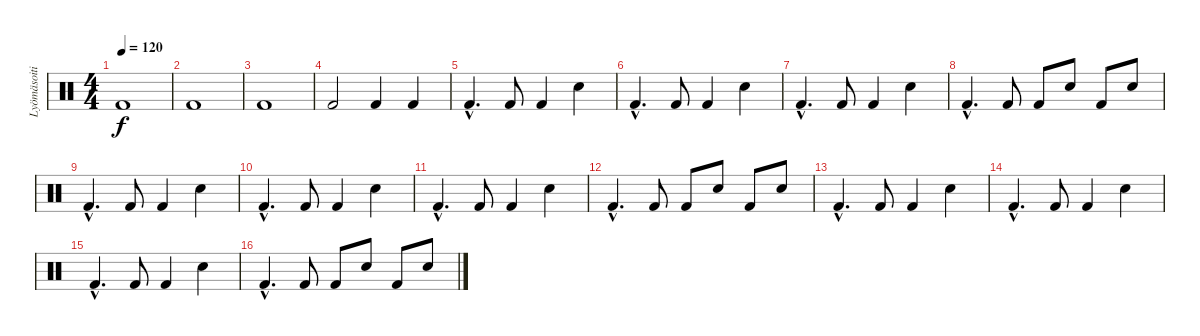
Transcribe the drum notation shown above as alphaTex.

\track ("Lyömäsoitin" "Lyömäsoiti") {instrument percussion}
\staff {score}
\articulation defaults
\ts (4 4)
\tempo 120
\clef neutral
\ks c "Kick (hit) 2".1{dy f}
|
"Kick (hit) 2".1 |
"Kick (hit) 2".1 |
"Kick (hit) 2".2 "Kick (hit) 2".4 "Kick (hit) 2".4 |
"Kick (hit) 2"{hac}.4{d} "Kick (hit) 2".8 "Kick (hit) 2".4 "Snare (hit) 2".4 |
"Kick (hit) 2"{hac}.4{d} "Kick (hit) 2".8 "Kick (hit) 2".4 "Snare (hit) 2".4 |
"Kick (hit) 2"{hac}.4{d} "Kick (hit) 2".8 "Kick (hit) 2".4 "Snare (hit) 2".4 |
"Kick (hit) 2"{hac}.4{d} "Kick (hit) 2".8 "Kick (hit) 2".8 "Snare (hit) 2".8 "Kick (hit) 2".8 "Snare (hit) 2".8 |
"Kick (hit) 2"{hac}.4{d} "Kick (hit) 2".8 "Kick (hit) 2".4 "Snare (hit) 2".4 |
"Kick (hit) 2"{hac}.4{d} "Kick (hit) 2".8 "Kick (hit) 2".4 "Snare (hit) 2".4 |
"Kick (hit) 2"{hac}.4{d} "Kick (hit) 2".8 "Kick (hit) 2".4 "Snare (hit) 2".4 |
"Kick (hit) 2"{hac}.4{d} "Kick (hit) 2".8 "Kick (hit) 2".8 "Snare (hit) 2".8 "Kick (hit) 2".8 "Snare (hit) 2".8 |
"Kick (hit) 2"{hac}.4{d} "Kick (hit) 2".8 "Kick (hit) 2".4 "Snare (hit) 2".4 |
"Kick (hit) 2"{hac}.4{d} "Kick (hit) 2".8 "Kick (hit) 2".4 "Snare (hit) 2".4 |
"Kick (hit) 2"{hac}.4{d} "Kick (hit) 2".8 "Kick (hit) 2".4 "Snare (hit) 2".4 |
"Kick (hit) 2"{hac}.4{d} "Kick (hit) 2".8 "Kick (hit) 2".8 "Snare (hit) 2".8 "Kick (hit) 2".8 "Snare (hit) 2".8
